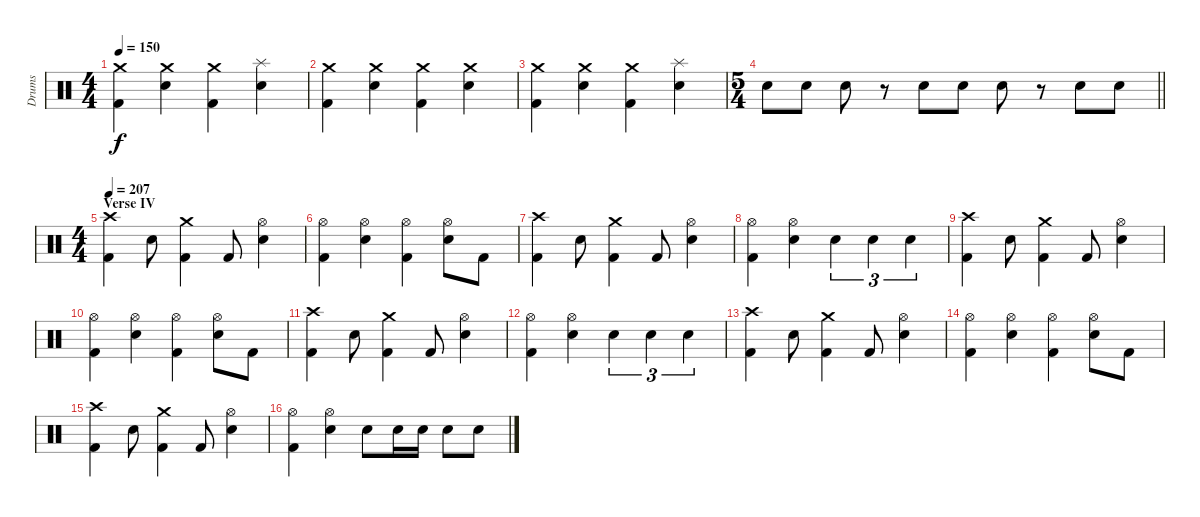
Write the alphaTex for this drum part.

\track ("Drums" "Drums") {instrument percussion}
\staff {score}
\articulation defaults
\ts (4 4)
\tempo 150
\clef neutral
\ks c
("Crash medium (hit)" "Kick (hit) 2").4{dy f} ("Crash medium (hit)" "Snare (hit) 2").4 ("Crash medium (hit)" "Kick (hit) 2").4 ("Splash (hit)" "Snare (hit) 2").4 |
("Crash medium (hit)" "Kick (hit) 2").4 ("Crash medium (hit)" "Snare (hit) 2").4 ("Crash medium (hit)" "Kick (hit) 2").4 ("Crash medium (hit)" "Snare (hit) 2").4 |
("Crash medium (hit)" "Kick (hit) 2").4 ("Crash medium (hit)" "Snare (hit) 2").4 ("Crash medium (hit)" "Kick (hit) 2").4 ("Splash (hit)" "Snare (hit) 2").4 |
\ts (5 4)
\barLineRight lightlight "Snare (hit) 2".8 "Snare (hit) 2".8 "Snare (hit) 2".8
r.8 "Snare (hit) 2".8 "Snare (hit) 2".8 "Snare (hit) 2".8 r.8 "Snare (hit) 2".8 "Snare (hit) 2".8 |
\ts (4 4)
\section ("" "Verse IV")
\tempo 207
("Crash high (hit)" "Kick (hit) 2").4 "Snare (hit) 2".8 ("Crash medium (hit)" "Kick (hit) 2").4 "Kick (hit) 2".8 ("Hi-Hat (open)" "Snare (hit) 2").4 |
("Hi-Hat (open)" "Kick (hit) 2").4 ("Hi-Hat (open)" "Snare (hit) 2").4 ("Hi-Hat (open)" "Kick (hit) 2").4 ("Hi-Hat (open)" "Snare (hit) 2").8 "Kick (hit) 2".8 |
("Crash high (hit)" "Kick (hit) 2").4 "Snare (hit) 2".8 ("Crash medium (hit)" "Kick (hit) 2").4 "Kick (hit) 2".8 ("Hi-Hat (open)" "Snare (hit) 2").4 |
("Hi-Hat (open)" "Kick (hit) 2").4 ("Hi-Hat (open)" "Snare (hit) 2").4 "Snare (hit) 2".4{tu (3 2)} "Snare (hit) 2".4{tu (3 2)} "Snare (hit) 2".4{tu (3 2)} |
("Crash high (hit)" "Kick (hit) 2").4 "Snare (hit) 2".8 ("Crash medium (hit)" "Kick (hit) 2").4 "Kick (hit) 2".8 ("Hi-Hat (open)" "Snare (hit) 2").4 |
("Hi-Hat (open)" "Kick (hit) 2").4 ("Hi-Hat (open)" "Snare (hit) 2").4 ("Hi-Hat (open)" "Kick (hit) 2").4 ("Hi-Hat (open)" "Snare (hit) 2").8 "Kick (hit) 2".8 |
("Crash high (hit)" "Kick (hit) 2").4 "Snare (hit) 2".8 ("Crash medium (hit)" "Kick (hit) 2").4 "Kick (hit) 2".8 ("Hi-Hat (open)" "Snare (hit) 2").4 |
("Hi-Hat (open)" "Kick (hit) 2").4 ("Hi-Hat (open)" "Snare (hit) 2").4 "Snare (hit) 2".4{tu (3 2)} "Snare (hit) 2".4{tu (3 2)} "Snare (hit) 2".4{tu (3 2)} |
("Crash high (hit)" "Kick (hit) 2").4 "Snare (hit) 2".8 ("Crash medium (hit)" "Kick (hit) 2").4 "Kick (hit) 2".8 ("Hi-Hat (open)" "Snare (hit) 2").4 |
("Hi-Hat (open)" "Kick (hit) 2").4 ("Hi-Hat (open)" "Snare (hit) 2").4 ("Hi-Hat (open)" "Kick (hit) 2").4 ("Hi-Hat (open)" "Snare (hit) 2").8 "Kick (hit) 2".8 |
("Crash high (hit)" "Kick (hit) 2").4 "Snare (hit) 2".8 ("Crash medium (hit)" "Kick (hit) 2").4 "Kick (hit) 2".8 ("Hi-Hat (open)" "Snare (hit) 2").4 |
("Hi-Hat (open)" "Kick (hit) 2").4 ("Hi-Hat (open)" "Snare (hit) 2").4 "Snare (hit) 2".8 "Snare (hit) 2".16 "Snare (hit) 2".16 "Snare (hit) 2".8 "Snare (hit) 2".8
